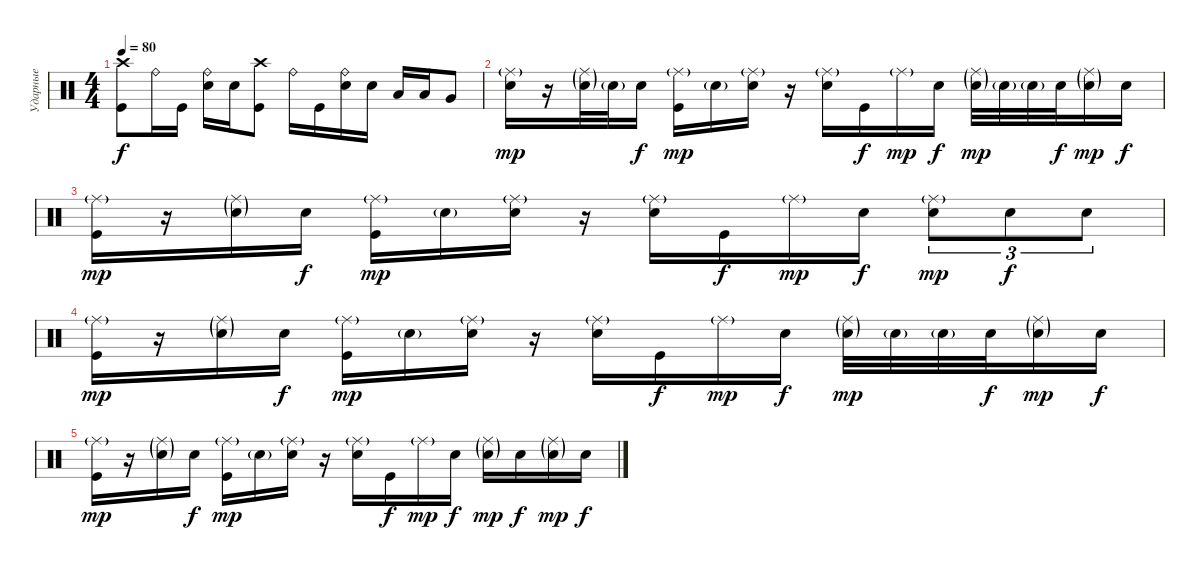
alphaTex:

\track ("Ударные" "Ударные") {instrument percussion}
\staff {score}
\articulation defaults
\ts (4 4)
\tempo 80
\clef neutral
\ks c
("Crash high (hit)" "Kick (hit)").8{dy f} "Ride (bell)".16 "Kick (hit)".16 ("Electric Snare (hit)" "Ride (bell)").16 "Electric Snare (hit)".16 ("Crash high (hit)" "Kick (hit)").8 "Ride (bell)".16 "Kick (hit)".16 ("Electric Snare (hit)" "Ride (bell)").16 "Electric Snare (hit)".16 "Low Tom (hit)".16 "Low Tom (hit)".16 "Very Low Tom (hit)".8 |
("Ride (middle)"{g} "Electric Snare (hit)").16{dy mp} r.16 ("Ride (middle)"{g} "Electric Snare (hit)"{g}).32 "Electric Snare (hit)"{g}.32 "Electric Snare (hit)".16{dy f} ("Ride (middle)"{g} "Kick (hit)").16{dy mp} "Electric Snare (hit)"{g}.16 ("Ride (middle)"{g} "Electric Snare (hit)").16 r.16 ("Ride (middle)"{g} "Electric Snare (hit)").16 "Kick (hit)".16{dy f} "Ride (middle)"{g}.16{dy mp} "Electric Snare (hit)".16{dy f} ("Ride (middle)"{g} "Electric Snare (hit)"{g}).32{dy mp} "Electric Snare (hit)"{g}.32 "Electric Snare (hit)"{g}.32 "Electric Snare (hit)".32{dy f} ("Ride (middle)"{g} "Electric Snare (hit)"{g}).16{dy mp} "Electric Snare (hit)".16{dy f} |
("Ride (middle)"{g} "Kick (hit)").16{dy mp} r.16 ("Ride (middle)"{g} "Electric Snare (hit)"{g}).16 "Electric Snare (hit)".16{dy f} ("Ride (middle)"{g} "Kick (hit)").16{dy mp} "Electric Snare (hit)"{g}.16 ("Ride (middle)"{g} "Electric Snare (hit)").16 r.16 ("Ride (middle)"{g} "Electric Snare (hit)").16 "Kick (hit)".16{dy f} "Ride (middle)"{g}.16{dy mp} "Electric Snare (hit)".16{dy f} ("Ride (middle)"{g} "Electric Snare (hit)").8{tu (3 2) dy mp} "Electric Snare (hit)".8{tu (3 2) dy f} "Electric Snare (hit)".8{tu (3 2)} |
("Ride (middle)"{g} "Kick (hit)").16{dy mp} r.16 ("Ride (middle)"{g} "Electric Snare (hit)"{g}).16 "Electric Snare (hit)".16{dy f} ("Ride (middle)"{g} "Kick (hit)").16{dy mp} "Electric Snare (hit)"{g}.16 ("Ride (middle)"{g} "Electric Snare (hit)").16 r.16 ("Ride (middle)"{g} "Electric Snare (hit)").16 "Kick (hit)".16{dy f} "Ride (middle)"{g}.16{dy mp} "Electric Snare (hit)".16{dy f} ("Ride (middle)"{g} "Electric Snare (hit)"{g}).32{dy mp} "Electric Snare (hit)"{g}.32 "Electric Snare (hit)"{g}.32 "Electric Snare (hit)".32{dy f} ("Ride (middle)"{g} "Electric Snare (hit)"{g}).16{dy mp} "Electric Snare (hit)".16{dy f} |
("Ride (middle)"{g} "Kick (hit)").16{dy mp} r.16 ("Ride (middle)"{g} "Electric Snare (hit)"{g}).16 "Electric Snare (hit)".16{dy f} ("Ride (middle)"{g} "Kick (hit)").16{dy mp} "Electric Snare (hit)"{g}.16 ("Ride (middle)"{g} "Electric Snare (hit)").16 r.16 ("Ride (middle)"{g} "Electric Snare (hit)").16 "Kick (hit)".16{dy f} "Ride (middle)"{g}.16{dy mp} "Electric Snare (hit)".16{dy f} ("Ride (middle)"{g} "Electric Snare (hit)"{g}).16{dy mp} "Electric Snare (hit)".16{dy f} ("Ride (middle)"{g} "Electric Snare (hit)"{g}).16{dy mp} "Electric Snare (hit)".16{dy f}
